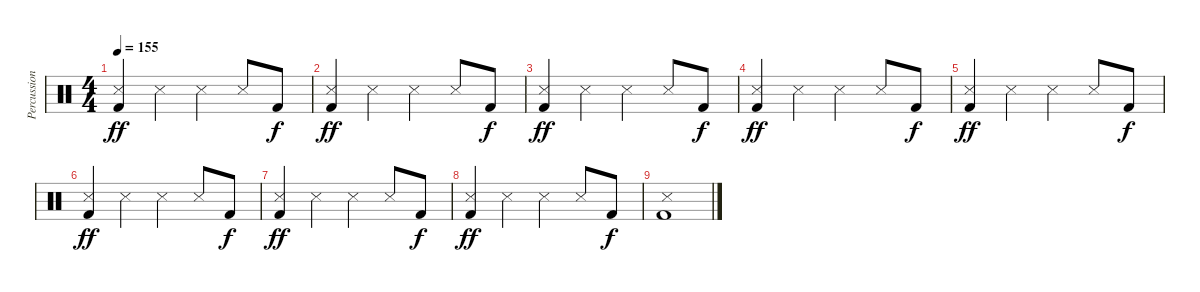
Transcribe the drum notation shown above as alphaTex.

\track ("Percussion" "Percussion") {instrument percussion}
\staff {score}
\articulation defaults
\ts (4 4)
\tempo 155
\clef neutral
\ks c
("Snare (side stick) 3" "Kick (hit) 2").4{dy ff} "Snare (side stick) 3".4 "Snare (side stick) 3".4 "Snare (side stick) 3".8 "Kick (hit) 2".8{dy f} |
("Snare (side stick) 3" "Kick (hit) 2").4{dy ff} "Snare (side stick) 3".4 "Snare (side stick) 3".4 "Snare (side stick) 3".8 "Kick (hit) 2".8{dy f} |
("Snare (side stick) 3" "Kick (hit) 2").4{dy ff} "Snare (side stick) 3".4 "Snare (side stick) 3".4 "Snare (side stick) 3".8 "Kick (hit) 2".8{dy f} |
("Snare (side stick) 3" "Kick (hit) 2").4{dy ff} "Snare (side stick) 3".4 "Snare (side stick) 3".4 "Snare (side stick) 3".8 "Kick (hit) 2".8{dy f} |
("Snare (side stick) 3" "Kick (hit) 2").4{dy ff} "Snare (side stick) 3".4 "Snare (side stick) 3".4 "Snare (side stick) 3".8 "Kick (hit) 2".8{dy f} |
("Snare (side stick) 3" "Kick (hit) 2").4{dy ff} "Snare (side stick) 3".4 "Snare (side stick) 3".4 "Snare (side stick) 3".8 "Kick (hit) 2".8{dy f} |
("Snare (side stick) 3" "Kick (hit) 2").4{dy ff} "Snare (side stick) 3".4 "Snare (side stick) 3".4 "Snare (side stick) 3".8 "Kick (hit) 2".8{dy f} |
("Snare (side stick) 3" "Kick (hit) 2").4{dy ff} "Snare (side stick) 3".4 "Snare (side stick) 3".4 "Snare (side stick) 3".8 "Kick (hit) 2".8{dy f} |
("Snare (side stick) 3" "Kick (hit) 2").1
